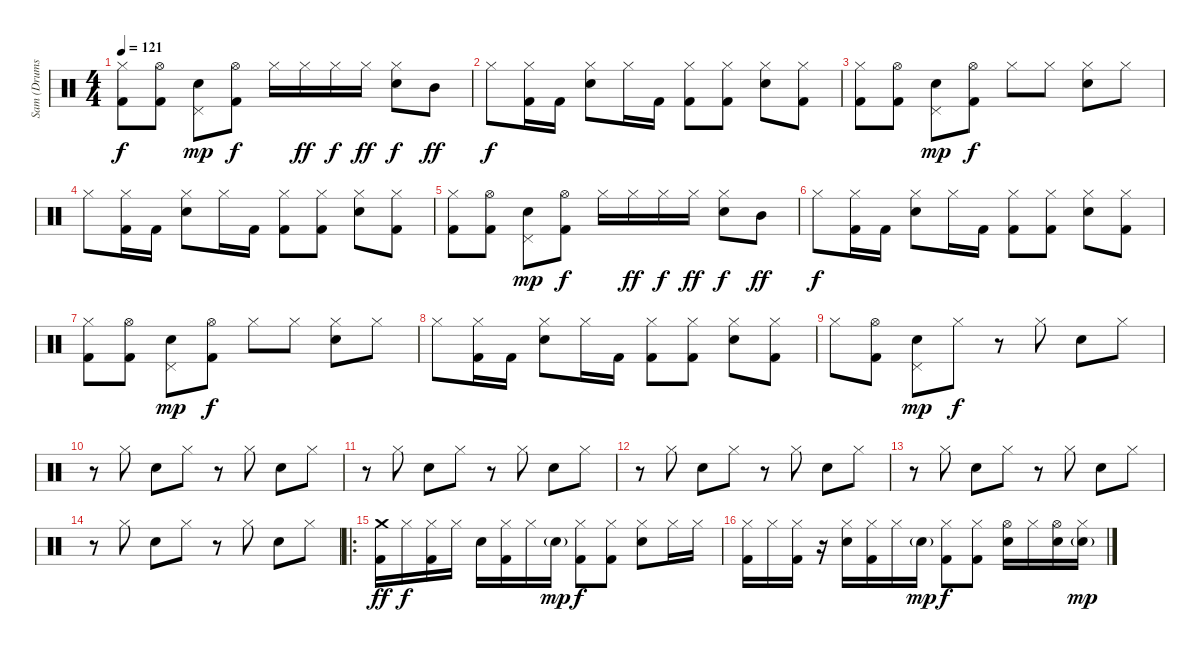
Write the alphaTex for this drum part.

\track ("Sam (Drums)" "Sam (Drums") {instrument percussion}
\staff {score}
\articulation defaults
\ts (4 4)
\tempo 121
\clef neutral
\ks c
("Hi-Hat (closed)" "Kick (hit) 2").8{dy f} ("Hi-Hat (open)" "Kick (hit) 2").8 ("Pedal Hi-Hat (hit)" "Snare (hit) 2").8{dy mp} ("Hi-Hat (open)" "Kick (hit) 2").8{dy f} "Hi-Hat (closed)".16 "Hi-Hat (closed)".16{dy ff} "Hi-Hat (closed)".16{dy f} "Hi-Hat (closed)".16{dy ff} ("Hi-Hat (closed)" "Snare (hit) 2").8{dy f} "Mid Tom (hit)".8{dy ff} |
"Hi-Hat (closed)".8{dy f} ("Hi-Hat (closed)" "Kick (hit) 2").16 "Kick (hit) 2".16 ("Hi-Hat (closed)" "Snare (hit) 2").8 "Hi-Hat (closed)".16 "Kick (hit) 2".16 ("Hi-Hat (closed)" "Kick (hit) 2").8 ("Hi-Hat (closed)" "Kick (hit) 2").8 ("Hi-Hat (closed)" "Snare (hit) 2").8 ("Hi-Hat (closed)" "Kick (hit) 2").8 |
("Hi-Hat (closed)" "Kick (hit) 2").8 ("Hi-Hat (open)" "Kick (hit) 2").8 ("Pedal Hi-Hat (hit)" "Snare (hit) 2").8{dy mp} ("Hi-Hat (open)" "Kick (hit) 2").8{dy f} "Hi-Hat (closed)".8 "Hi-Hat (closed)".8 ("Hi-Hat (closed)" "Snare (hit) 2").8 "Hi-Hat (closed)".8 |
"Hi-Hat (closed)".8 ("Hi-Hat (closed)" "Kick (hit) 2").16 "Kick (hit) 2".16 ("Hi-Hat (closed)" "Snare (hit) 2").8 "Hi-Hat (closed)".16 "Kick (hit) 2".16 ("Hi-Hat (closed)" "Kick (hit) 2").8 ("Hi-Hat (closed)" "Kick (hit) 2").8 ("Hi-Hat (closed)" "Snare (hit) 2").8 ("Hi-Hat (closed)" "Kick (hit) 2").8 |
("Hi-Hat (closed)" "Kick (hit) 2").8 ("Hi-Hat (open)" "Kick (hit) 2").8 ("Pedal Hi-Hat (hit)" "Snare (hit) 2").8{dy mp} ("Hi-Hat (open)" "Kick (hit) 2").8{dy f} "Hi-Hat (closed)".16 "Hi-Hat (closed)".16{dy ff} "Hi-Hat (closed)".16{dy f} "Hi-Hat (closed)".16{dy ff} ("Hi-Hat (closed)" "Snare (hit) 2").8{dy f} "Mid Tom (hit)".8{dy ff} |
"Hi-Hat (closed)".8{dy f} ("Hi-Hat (closed)" "Kick (hit) 2").16 "Kick (hit) 2".16 ("Hi-Hat (closed)" "Snare (hit) 2").8 "Hi-Hat (closed)".16 "Kick (hit) 2".16 ("Hi-Hat (closed)" "Kick (hit) 2").8 ("Hi-Hat (closed)" "Kick (hit) 2").8 ("Hi-Hat (closed)" "Snare (hit) 2").8 ("Hi-Hat (closed)" "Kick (hit) 2").8 |
("Hi-Hat (closed)" "Kick (hit) 2").8 ("Hi-Hat (open)" "Kick (hit) 2").8 ("Pedal Hi-Hat (hit)" "Snare (hit) 2").8{dy mp} ("Hi-Hat (open)" "Kick (hit) 2").8{dy f} "Hi-Hat (closed)".8 "Hi-Hat (closed)".8 ("Hi-Hat (closed)" "Snare (hit) 2").8 "Hi-Hat (closed)".8 |
"Hi-Hat (closed)".8 ("Hi-Hat (closed)" "Kick (hit) 2").16 "Kick (hit) 2".16 ("Hi-Hat (closed)" "Snare (hit) 2").8 "Hi-Hat (closed)".16 "Kick (hit) 2".16 ("Hi-Hat (closed)" "Kick (hit) 2").8 ("Hi-Hat (closed)" "Kick (hit) 2").8 ("Hi-Hat (closed)" "Snare (hit) 2").8 ("Hi-Hat (closed)" "Kick (hit) 2").8 |
"Hi-Hat (closed)".8 ("Hi-Hat (open)" "Kick (hit) 2").8 ("Pedal Hi-Hat (hit)" "Snare (hit) 2").8{dy mp} "Hi-Hat (closed)".8{dy f} r.8 "Hi-Hat (closed)".8 "Snare (hit) 2".8 "Hi-Hat (closed)".8 |
r.8 "Hi-Hat (closed)".8 "Snare (hit) 2".8 "Hi-Hat (closed)".8 r.8 "Hi-Hat (closed)".8 "Snare (hit) 2".8 "Hi-Hat (closed)".8 |
r.8 "Hi-Hat (closed)".8 "Snare (hit) 2".8 "Hi-Hat (closed)".8 r.8 "Hi-Hat (closed)".8 "Snare (hit) 2".8 "Hi-Hat (closed)".8 |
r.8 "Hi-Hat (closed)".8 "Snare (hit) 2".8 "Hi-Hat (closed)".8 r.8 "Hi-Hat (closed)".8 "Snare (hit) 2".8 "Hi-Hat (closed)".8 |
r.8 "Hi-Hat (closed)".8 "Snare (hit) 2".8 "Hi-Hat (closed)".8 r.8 "Hi-Hat (closed)".8 "Snare (hit) 2".8 "Hi-Hat (closed)".8 |
r.8 "Hi-Hat (closed)".8 "Snare (hit) 2".8 "Hi-Hat (closed)".8 r.8 "Hi-Hat (closed)".8 "Snare (hit) 2".8 "Hi-Hat (closed)".8 |
\ro
("Crash medium (hit)" "Kick (hit) 2").16{dy ff} "Hi-Hat (closed)".16{dy f} ("Hi-Hat (closed)" "Kick (hit) 2").16 "Hi-Hat (closed)".16 "Snare (hit) 2".16 ("Hi-Hat (closed)" "Kick (hit) 2").16 "Hi-Hat (closed)".16 "Snare (hit) 2"{g}.16{dy mp} ("Hi-Hat (closed)" "Kick (hit) 2").8{dy f} ("Hi-Hat (closed)" "Kick (hit) 2").8 ("Hi-Hat (closed)" "Snare (hit) 2").8 "Hi-Hat (closed)".16 "Hi-Hat (closed)".16 |
("Hi-Hat (closed)" "Kick (hit) 2").16 "Hi-Hat (closed)".16 ("Hi-Hat (closed)" "Kick (hit) 2").16 r.16 ("Hi-Hat (closed)" "Snare (hit) 2").16 ("Hi-Hat (closed)" "Kick (hit) 2").16 "Hi-Hat (closed)".16 "Snare (hit) 2"{g}.16{dy mp} ("Hi-Hat (closed)" "Kick (hit) 2").8{dy f} ("Hi-Hat (closed)" "Kick (hit) 2").8 ("Hi-Hat (open)" "Snare (hit) 2").16 "Hi-Hat (closed)".16 ("Hi-Hat (open)" "Snare (hit) 2").16 ("Hi-Hat (closed)" "Snare (hit) 2"{g}).16{dy mp}
